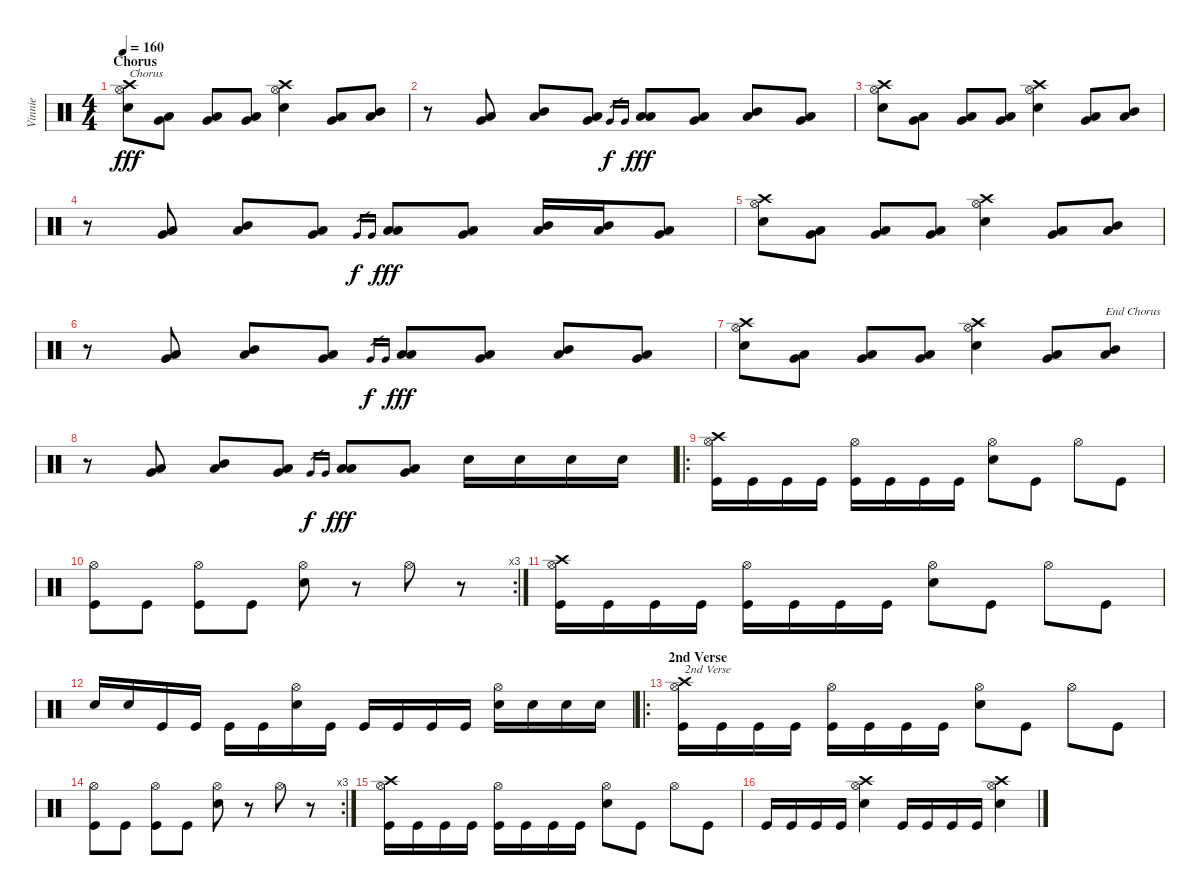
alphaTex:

\track ("Vinnie" "Vinnie") {instrument percussion}
\staff {score}
\articulation defaults
\ts (4 4)
\section ("" "Chorus")
\tempo 160
\clef neutral
\ks c
("Electric Snare (hit)" "Crash high (hit)" "Hi-Hat (open)").8{txt "Chorus" dy fff} ("Low Tom (hit)" "Very Low Tom (hit)").8 ("Low Tom (hit)" "Very Low Tom (hit)").8 ("Low Tom (hit)" "Very Low Tom (hit)").8 ("Electric Snare (hit)" "Crash high (hit)" "Hi-Hat (open)").4 ("Low Tom (hit)" "Very Low Tom (hit)").8 ("Mid Tom (hit)" "Low Tom (hit)").8 |
r.8 ("Low Tom (hit)" "Very Low Tom (hit)").8 ("Mid Tom (hit)" "Low Tom (hit)").8 ("Low Tom (hit)" "Very Low Tom (hit)").8 "Very Low Tom (hit)".16{gr dy f} "Very Low Tom (hit)".16{gr} ("Low Tom (hit)" "Low Tom (hit)").8{dy fff} ("Low Tom (hit)" "Very Low Tom (hit)").8 ("Mid Tom (hit)" "Low Tom (hit)").8 ("Low Tom (hit)" "Very Low Tom (hit)").8 |
("Electric Snare (hit)" "Crash high (hit)" "Hi-Hat (open)").8 ("Low Tom (hit)" "Very Low Tom (hit)").8 ("Low Tom (hit)" "Very Low Tom (hit)").8 ("Low Tom (hit)" "Very Low Tom (hit)").8 ("Electric Snare (hit)" "Crash high (hit)" "Hi-Hat (open)").4 ("Low Tom (hit)" "Very Low Tom (hit)").8 ("Mid Tom (hit)" "Low Tom (hit)").8 |
r.8 ("Low Tom (hit)" "Very Low Tom (hit)").8 ("Mid Tom (hit)" "Low Tom (hit)").8 ("Low Tom (hit)" "Very Low Tom (hit)").8 "Very Low Tom (hit)".16{gr dy f} "Very Low Tom (hit)".16{gr} ("Low Tom (hit)" "Low Tom (hit)").8{dy fff} ("Low Tom (hit)" "Very Low Tom (hit)").8 ("Mid Tom (hit)" "Low Tom (hit)").16 ("Mid Tom (hit)" "Low Tom (hit)").16 ("Low Tom (hit)" "Very Low Tom (hit)").8 |
("Electric Snare (hit)" "Crash high (hit)" "Hi-Hat (open)").8 ("Low Tom (hit)" "Very Low Tom (hit)").8 ("Low Tom (hit)" "Very Low Tom (hit)").8 ("Low Tom (hit)" "Very Low Tom (hit)").8 ("Electric Snare (hit)" "Crash high (hit)" "Hi-Hat (open)").4 ("Low Tom (hit)" "Very Low Tom (hit)").8 ("Mid Tom (hit)" "Low Tom (hit)").8 |
r.8 ("Low Tom (hit)" "Very Low Tom (hit)").8 ("Mid Tom (hit)" "Low Tom (hit)").8 ("Low Tom (hit)" "Very Low Tom (hit)").8 "Very Low Tom (hit)".16{gr dy f} "Very Low Tom (hit)".16{gr} ("Low Tom (hit)" "Low Tom (hit)").8{dy fff} ("Low Tom (hit)" "Very Low Tom (hit)").8 ("Mid Tom (hit)" "Low Tom (hit)").8 ("Low Tom (hit)" "Very Low Tom (hit)").8 |
("Electric Snare (hit)" "Crash high (hit)" "Hi-Hat (open)").8 ("Low Tom (hit)" "Very Low Tom (hit)").8 ("Low Tom (hit)" "Very Low Tom (hit)").8 ("Low Tom (hit)" "Very Low Tom (hit)").8 ("Electric Snare (hit)" "Crash high (hit)" "Hi-Hat (open)").4 ("Low Tom (hit)" "Very Low Tom (hit)").8 ("Mid Tom (hit)" "Low Tom (hit)").8{txt "End Chorus"} |
r.8 ("Low Tom (hit)" "Very Low Tom (hit)").8 ("Mid Tom (hit)" "Low Tom (hit)").8 ("Low Tom (hit)" "Very Low Tom (hit)").8 "Very Low Tom (hit)".16{gr dy f} "Very Low Tom (hit)".16{gr} ("Low Tom (hit)" "Low Tom (hit)").8{dy fff} ("Low Tom (hit)" "Very Low Tom (hit)").8 "Electric Snare (hit)".16 "Electric Snare (hit)".16 "Electric Snare (hit)".16 "Electric Snare (hit)".16 |
\ro
("Kick (hit)" "Crash high (hit)" "Hi-Hat (open)").16 "Kick (hit)".16 "Kick (hit)".16 "Kick (hit)".16 ("Kick (hit)" "Hi-Hat (open)").16 "Kick (hit)".16 "Kick (hit)".16 "Kick (hit)".16 ("Electric Snare (hit)" "Hi-Hat (open)").8 "Kick (hit)".8 "Hi-Hat (open)".8 "Kick (hit)".8 |
\rc 3
("Kick (hit)" "Hi-Hat (open)").8 "Kick (hit)".8 ("Kick (hit)" "Hi-Hat (open)").8 "Kick (hit)".8 ("Electric Snare (hit)" "Hi-Hat (open)").8 r.8 "Hi-Hat (open)".8 r.8 |
("Kick (hit)" "Crash high (hit)" "Hi-Hat (open)").16 "Kick (hit)".16 "Kick (hit)".16 "Kick (hit)".16 ("Kick (hit)" "Hi-Hat (open)").16 "Kick (hit)".16 "Kick (hit)".16 "Kick (hit)".16 ("Electric Snare (hit)" "Hi-Hat (open)").8 "Kick (hit)".8 "Hi-Hat (open)".8 "Kick (hit)".8 |
"Electric Snare (hit)".16 "Electric Snare (hit)".16 "Kick (hit)".16 "Kick (hit)".16 "Kick (hit)".16 "Kick (hit)".16 ("Electric Snare (hit)" "Hi-Hat (open)").16 "Kick (hit)".16 "Kick (hit)".16 "Kick (hit)".16 "Kick (hit)".16 "Kick (hit)".16 ("Electric Snare (hit)" "Hi-Hat (open)").16 "Electric Snare (hit)".16 "Electric Snare (hit)".16 "Electric Snare (hit)".16 |
\ro
\section ("" "2nd Verse")
("Kick (hit)" "Crash high (hit)" "Hi-Hat (open)").16{txt "2nd Verse"} "Kick (hit)".16 "Kick (hit)".16 "Kick (hit)".16 ("Kick (hit)" "Hi-Hat (open)").16 "Kick (hit)".16 "Kick (hit)".16 "Kick (hit)".16 ("Electric Snare (hit)" "Hi-Hat (open)").8 "Kick (hit)".8 "Hi-Hat (open)".8 "Kick (hit)".8 |
\rc 3
("Kick (hit)" "Hi-Hat (open)").8 "Kick (hit)".8 ("Kick (hit)" "Hi-Hat (open)").8 "Kick (hit)".8 ("Electric Snare (hit)" "Hi-Hat (open)").8 r.8 "Hi-Hat (open)".8 r.8 |
("Kick (hit)" "Crash high (hit)" "Hi-Hat (open)").16 "Kick (hit)".16 "Kick (hit)".16 "Kick (hit)".16 ("Kick (hit)" "Hi-Hat (open)").16 "Kick (hit)".16 "Kick (hit)".16 "Kick (hit)".16 ("Electric Snare (hit)" "Hi-Hat (open)").8 "Kick (hit)".8 "Hi-Hat (open)".8 "Kick (hit)".8 |
"Kick (hit)".16 "Kick (hit)".16 "Kick (hit)".16 "Kick (hit)".16 ("Electric Snare (hit)" "Crash high (hit)" "Hi-Hat (open)").4 "Kick (hit)".16 "Kick (hit)".16 "Kick (hit)".16 "Kick (hit)".16 ("Electric Snare (hit)" "Crash high (hit)" "Hi-Hat (open)").4
